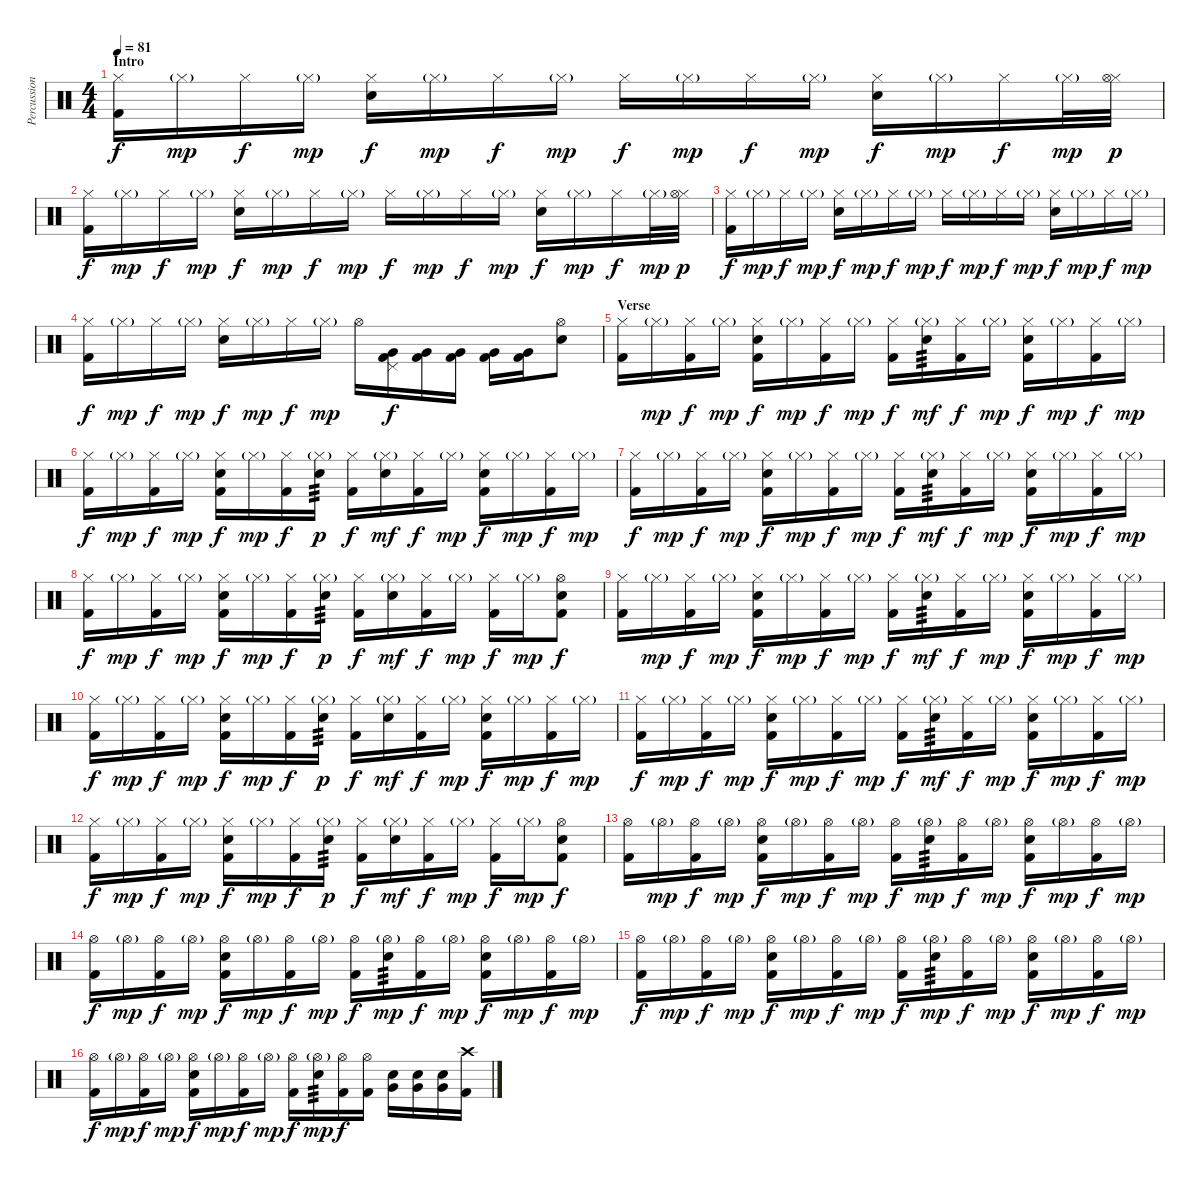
\track ("Percussion" "Percussion") {instrument percussion}
\staff {score}
\articulation defaults
\ts (4 4)
\section ("" "Intro")
\tempo 81
\clef neutral
\ks c
("Hi-Hat (closed)" "Kick (hit) 2").16{dy f} "Hi-Hat (closed)"{g}.16{dy mp} "Hi-Hat (closed)".16{dy f} "Hi-Hat (closed)"{g}.16{dy mp} ("Hi-Hat (closed)" "Electric Snare (hit)").16{dy f} "Hi-Hat (closed)"{g}.16{dy mp} "Hi-Hat (closed)".16{dy f} "Hi-Hat (closed)"{g}.16{dy mp} "Hi-Hat (closed)".16{dy f} "Hi-Hat (closed)"{g}.16{dy mp} "Hi-Hat (closed)".16{dy f} "Hi-Hat (closed)"{g}.16{dy mp} ("Hi-Hat (closed)" "Electric Snare (hit)").16{dy f} "Hi-Hat (closed)"{g}.16{dy mp} "Hi-Hat (closed)".16{dy f} "Hi-Hat (closed)"{g}.32{dy mp} ("Hi-Hat (closed)" "Hi-Hat (open)").32{dy p} |
("Hi-Hat (closed)" "Kick (hit) 2").16{dy f} "Hi-Hat (closed)"{g}.16{dy mp} "Hi-Hat (closed)".16{dy f} "Hi-Hat (closed)"{g}.16{dy mp} ("Hi-Hat (closed)" "Electric Snare (hit)").16{dy f} "Hi-Hat (closed)"{g}.16{dy mp} "Hi-Hat (closed)".16{dy f} "Hi-Hat (closed)"{g}.16{dy mp} "Hi-Hat (closed)".16{dy f} "Hi-Hat (closed)"{g}.16{dy mp} "Hi-Hat (closed)".16{dy f} "Hi-Hat (closed)"{g}.16{dy mp} ("Hi-Hat (closed)" "Electric Snare (hit)").16{dy f} "Hi-Hat (closed)"{g}.16{dy mp} "Hi-Hat (closed)".16{dy f} "Hi-Hat (closed)"{g}.32{dy mp} ("Hi-Hat (closed)" "Hi-Hat (open)").32{dy p} |
("Hi-Hat (closed)" "Kick (hit) 2").16{dy f} "Hi-Hat (closed)"{g}.16{dy mp} "Hi-Hat (closed)".16{dy f} "Hi-Hat (closed)"{g}.16{dy mp} ("Hi-Hat (closed)" "Electric Snare (hit)").16{dy f} "Hi-Hat (closed)"{g}.16{dy mp} "Hi-Hat (closed)".16{dy f} "Hi-Hat (closed)"{g}.16{dy mp} "Hi-Hat (closed)".16{dy f} "Hi-Hat (closed)"{g}.16{dy mp} "Hi-Hat (closed)".16{dy f} "Hi-Hat (closed)"{g}.16{dy mp} ("Hi-Hat (closed)" "Electric Snare (hit)").16{dy f} "Hi-Hat (closed)"{g}.16{dy mp} "Hi-Hat (closed)".16{dy f} "Hi-Hat (closed)"{g}.16{dy mp} |
("Hi-Hat (closed)" "Kick (hit) 2").16{dy f} "Hi-Hat (closed)"{g}.16{dy mp} "Hi-Hat (closed)".16{dy f} "Hi-Hat (closed)"{g}.16{dy mp} ("Hi-Hat (closed)" "Electric Snare (hit)").16{dy f} "Hi-Hat (closed)"{g}.16{dy mp} "Hi-Hat (closed)".16{dy f} "Hi-Hat (closed)"{g}.16{dy mp} "Hi-Hat (open)".16 ("Pedal Hi-Hat (hit)" "Very Low Tom (hit)" "Kick (hit) 2").16{dy f} ("Very Low Tom (hit)" "Kick (hit) 2").16 ("Very Low Tom (hit)" "Kick (hit) 2").16 ("Very Low Tom (hit)" "Kick (hit) 2").16 ("Very Low Tom (hit)" "Kick (hit) 2").16 ("Hi-Hat (open)" "Electric Snare (hit)").8 |
\section ("" "Verse")
("Hi-Hat (closed)" "Kick (hit) 2").16 "Hi-Hat (closed)"{g}.16{dy mp} ("Hi-Hat (closed)" "Kick (hit) 2").16{dy f} "Hi-Hat (closed)"{g}.16{dy mp} ("Hi-Hat (closed)" "Electric Snare (hit)" "Kick (hit) 2").16{dy f} "Hi-Hat (closed)"{g}.16{dy mp} ("Hi-Hat (closed)" "Kick (hit) 2").16{dy f} "Hi-Hat (closed)"{g}.16{dy mp} ("Hi-Hat (closed)" "Kick (hit) 2").16{dy f} ("Hi-Hat (closed)"{g} "Electric Snare (hit)").16{tp 3 dy mf} ("Hi-Hat (closed)" "Kick (hit) 2").16{dy f} "Hi-Hat (closed)"{g}.16{dy mp} ("Hi-Hat (closed)" "Electric Snare (hit)" "Kick (hit) 2").16{dy f} "Hi-Hat (closed)"{g}.16{dy mp} ("Hi-Hat (closed)" "Kick (hit) 2").16{dy f} "Hi-Hat (closed)"{g}.16{dy mp} |
("Hi-Hat (closed)" "Kick (hit) 2").16{dy f} "Hi-Hat (closed)"{g}.16{dy mp} ("Hi-Hat (closed)" "Kick (hit) 2").16{dy f} "Hi-Hat (closed)"{g}.16{dy mp} ("Hi-Hat (closed)" "Electric Snare (hit)" "Kick (hit) 2").16{dy f} "Hi-Hat (closed)"{g}.16{dy mp} ("Hi-Hat (closed)" "Kick (hit) 2").16{dy f} ("Hi-Hat (closed)"{g} "Electric Snare (hit)").16{tp 3 dy p} ("Hi-Hat (closed)" "Kick (hit) 2").16{dy f} ("Hi-Hat (closed)"{g} "Electric Snare (hit)").16{dy mf} ("Hi-Hat (closed)" "Kick (hit) 2").16{dy f} "Hi-Hat (closed)"{g}.16{dy mp} ("Hi-Hat (closed)" "Electric Snare (hit)" "Kick (hit) 2").16{dy f} "Hi-Hat (closed)"{g}.16{dy mp} ("Hi-Hat (closed)" "Kick (hit) 2").16{dy f} "Hi-Hat (closed)"{g}.16{dy mp} |
("Hi-Hat (closed)" "Kick (hit) 2").16{dy f} "Hi-Hat (closed)"{g}.16{dy mp} ("Hi-Hat (closed)" "Kick (hit) 2").16{dy f} "Hi-Hat (closed)"{g}.16{dy mp} ("Hi-Hat (closed)" "Electric Snare (hit)" "Kick (hit) 2").16{dy f} "Hi-Hat (closed)"{g}.16{dy mp} ("Hi-Hat (closed)" "Kick (hit) 2").16{dy f} "Hi-Hat (closed)"{g}.16{dy mp} ("Hi-Hat (closed)" "Kick (hit) 2").16{dy f} ("Hi-Hat (closed)"{g} "Electric Snare (hit)").16{tp 3 dy mf} ("Hi-Hat (closed)" "Kick (hit) 2").16{dy f} "Hi-Hat (closed)"{g}.16{dy mp} ("Hi-Hat (closed)" "Electric Snare (hit)" "Kick (hit) 2").16{dy f} "Hi-Hat (closed)"{g}.16{dy mp} ("Hi-Hat (closed)" "Kick (hit) 2").16{dy f} "Hi-Hat (closed)"{g}.16{dy mp} |
("Hi-Hat (closed)" "Kick (hit) 2").16{dy f} "Hi-Hat (closed)"{g}.16{dy mp} ("Hi-Hat (closed)" "Kick (hit) 2").16{dy f} "Hi-Hat (closed)"{g}.16{dy mp} ("Hi-Hat (closed)" "Electric Snare (hit)" "Kick (hit) 2").16{dy f} "Hi-Hat (closed)"{g}.16{dy mp} ("Hi-Hat (closed)" "Kick (hit) 2").16{dy f} ("Hi-Hat (closed)"{g} "Electric Snare (hit)").16{tp 3 dy p} ("Hi-Hat (closed)" "Kick (hit) 2").16{dy f} ("Hi-Hat (closed)"{g} "Electric Snare (hit)").16{dy mf} ("Hi-Hat (closed)" "Kick (hit) 2").16{dy f} "Hi-Hat (closed)"{g}.16{dy mp} ("Hi-Hat (closed)" "Kick (hit) 2").16{dy f} "Hi-Hat (closed)"{g}.16{dy mp} ("Hi-Hat (open)" "Electric Snare (hit)" "Kick (hit) 2").8{dy f} |
("Hi-Hat (closed)" "Kick (hit) 2").16 "Hi-Hat (closed)"{g}.16{dy mp} ("Hi-Hat (closed)" "Kick (hit) 2").16{dy f} "Hi-Hat (closed)"{g}.16{dy mp} ("Hi-Hat (closed)" "Electric Snare (hit)" "Kick (hit) 2").16{dy f} "Hi-Hat (closed)"{g}.16{dy mp} ("Hi-Hat (closed)" "Kick (hit) 2").16{dy f} "Hi-Hat (closed)"{g}.16{dy mp} ("Hi-Hat (closed)" "Kick (hit) 2").16{dy f} ("Hi-Hat (closed)"{g} "Electric Snare (hit)").16{tp 3 dy mf} ("Hi-Hat (closed)" "Kick (hit) 2").16{dy f} "Hi-Hat (closed)"{g}.16{dy mp} ("Hi-Hat (closed)" "Electric Snare (hit)" "Kick (hit) 2").16{dy f} "Hi-Hat (closed)"{g}.16{dy mp} ("Hi-Hat (closed)" "Kick (hit) 2").16{dy f} "Hi-Hat (closed)"{g}.16{dy mp} |
("Hi-Hat (closed)" "Kick (hit) 2").16{dy f} "Hi-Hat (closed)"{g}.16{dy mp} ("Hi-Hat (closed)" "Kick (hit) 2").16{dy f} "Hi-Hat (closed)"{g}.16{dy mp} ("Hi-Hat (closed)" "Electric Snare (hit)" "Kick (hit) 2").16{dy f} "Hi-Hat (closed)"{g}.16{dy mp} ("Hi-Hat (closed)" "Kick (hit) 2").16{dy f} ("Hi-Hat (closed)"{g} "Electric Snare (hit)").16{tp 3 dy p} ("Hi-Hat (closed)" "Kick (hit) 2").16{dy f} ("Hi-Hat (closed)"{g} "Electric Snare (hit)").16{dy mf} ("Hi-Hat (closed)" "Kick (hit) 2").16{dy f} "Hi-Hat (closed)"{g}.16{dy mp} ("Hi-Hat (closed)" "Electric Snare (hit)" "Kick (hit) 2").16{dy f} "Hi-Hat (closed)"{g}.16{dy mp} ("Hi-Hat (closed)" "Kick (hit) 2").16{dy f} "Hi-Hat (closed)"{g}.16{dy mp} |
("Hi-Hat (closed)" "Kick (hit) 2").16{dy f} "Hi-Hat (closed)"{g}.16{dy mp} ("Hi-Hat (closed)" "Kick (hit) 2").16{dy f} "Hi-Hat (closed)"{g}.16{dy mp} ("Hi-Hat (closed)" "Electric Snare (hit)" "Kick (hit) 2").16{dy f} "Hi-Hat (closed)"{g}.16{dy mp} ("Hi-Hat (closed)" "Kick (hit) 2").16{dy f} "Hi-Hat (closed)"{g}.16{dy mp} ("Hi-Hat (closed)" "Kick (hit) 2").16{dy f} ("Hi-Hat (closed)"{g} "Electric Snare (hit)").16{tp 3 dy mf} ("Hi-Hat (closed)" "Kick (hit) 2").16{dy f} "Hi-Hat (closed)"{g}.16{dy mp} ("Hi-Hat (closed)" "Electric Snare (hit)" "Kick (hit) 2").16{dy f} "Hi-Hat (closed)"{g}.16{dy mp} ("Hi-Hat (closed)" "Kick (hit) 2").16{dy f} "Hi-Hat (closed)"{g}.16{dy mp} |
("Hi-Hat (closed)" "Kick (hit) 2").16{dy f} "Hi-Hat (closed)"{g}.16{dy mp} ("Hi-Hat (closed)" "Kick (hit) 2").16{dy f} "Hi-Hat (closed)"{g}.16{dy mp} ("Hi-Hat (closed)" "Electric Snare (hit)" "Kick (hit) 2").16{dy f} "Hi-Hat (closed)"{g}.16{dy mp} ("Hi-Hat (closed)" "Kick (hit) 2").16{dy f} ("Hi-Hat (closed)"{g} "Electric Snare (hit)").16{tp 3 dy p} ("Hi-Hat (closed)" "Kick (hit) 2").16{dy f} ("Hi-Hat (closed)"{g} "Electric Snare (hit)").16{dy mf} ("Hi-Hat (closed)" "Kick (hit) 2").16{dy f} "Hi-Hat (closed)"{g}.16{dy mp} ("Hi-Hat (closed)" "Kick (hit) 2").16{dy f} "Hi-Hat (closed)"{g}.16{dy mp} ("Hi-Hat (open)" "Electric Snare (hit)" "Kick (hit) 2").8{dy f} |
("Hi-Hat (open)" "Kick (hit) 2").16 "Hi-Hat (open)"{g}.16{dy mp} ("Hi-Hat (open)" "Kick (hit) 2").16{dy f} "Hi-Hat (open)"{g}.16{dy mp} ("Hi-Hat (open)" "Electric Snare (hit)" "Kick (hit) 2").16{dy f} "Hi-Hat (open)"{g}.16{dy mp} ("Hi-Hat (open)" "Kick (hit) 2").16{dy f} "Hi-Hat (open)"{g}.16{dy mp} ("Hi-Hat (open)" "Kick (hit) 2").16{dy f} ("Hi-Hat (open)"{g} "Electric Snare (hit)").16{tp 3 dy mp} ("Hi-Hat (open)" "Kick (hit) 2").16{dy f} "Hi-Hat (open)"{g}.16{dy mp} ("Hi-Hat (open)" "Electric Snare (hit)" "Kick (hit) 2").16{dy f} "Hi-Hat (open)"{g}.16{dy mp} ("Hi-Hat (open)" "Kick (hit) 2").16{dy f} "Hi-Hat (open)"{g}.16{dy mp} |
("Hi-Hat (open)" "Kick (hit) 2").16{dy f} "Hi-Hat (open)"{g}.16{dy mp} ("Hi-Hat (open)" "Kick (hit) 2").16{dy f} "Hi-Hat (open)"{g}.16{dy mp} ("Hi-Hat (open)" "Electric Snare (hit)" "Kick (hit) 2").16{dy f} "Hi-Hat (open)"{g}.16{dy mp} ("Hi-Hat (open)" "Kick (hit) 2").16{dy f} "Hi-Hat (open)"{g}.16{dy mp} ("Hi-Hat (open)" "Kick (hit) 2").16{dy f} ("Hi-Hat (open)"{g} "Electric Snare (hit)").16{tp 3 dy mp} ("Hi-Hat (open)" "Kick (hit) 2").16{dy f} "Hi-Hat (open)"{g}.16{dy mp} ("Hi-Hat (open)" "Electric Snare (hit)" "Kick (hit) 2").16{dy f} "Hi-Hat (open)"{g}.16{dy mp} ("Hi-Hat (open)" "Kick (hit) 2").16{dy f} "Hi-Hat (open)"{g}.16{dy mp} |
("Hi-Hat (open)" "Kick (hit) 2").16{dy f} "Hi-Hat (open)"{g}.16{dy mp} ("Hi-Hat (open)" "Kick (hit) 2").16{dy f} "Hi-Hat (open)"{g}.16{dy mp} ("Hi-Hat (open)" "Electric Snare (hit)" "Kick (hit) 2").16{dy f} "Hi-Hat (open)"{g}.16{dy mp} ("Hi-Hat (open)" "Kick (hit) 2").16{dy f} "Hi-Hat (open)"{g}.16{dy mp} ("Hi-Hat (open)" "Kick (hit) 2").16{dy f} ("Hi-Hat (open)"{g} "Electric Snare (hit)").16{tp 3 dy mp} ("Hi-Hat (open)" "Kick (hit) 2").16{dy f} "Hi-Hat (open)"{g}.16{dy mp} ("Hi-Hat (open)" "Electric Snare (hit)" "Kick (hit) 2").16{dy f} "Hi-Hat (open)"{g}.16{dy mp} ("Hi-Hat (open)" "Kick (hit) 2").16{dy f} "Hi-Hat (open)"{g}.16{dy mp} |
("Hi-Hat (open)" "Kick (hit) 2").16{dy f} "Hi-Hat (open)"{g}.16{dy mp} ("Hi-Hat (open)" "Kick (hit) 2").16{dy f} "Hi-Hat (open)"{g}.16{dy mp} ("Hi-Hat (open)" "Electric Snare (hit)" "Kick (hit) 2").16{dy f} "Hi-Hat (open)"{g}.16{dy mp} ("Hi-Hat (open)" "Kick (hit) 2").16{dy f} "Hi-Hat (open)"{g}.16{dy mp} ("Hi-Hat (open)" "Kick (hit) 2").16{dy f} ("Hi-Hat (open)"{g} "Electric Snare (hit)").16{tp 3 dy mp} ("Hi-Hat (open)" "Kick (hit) 2").16{dy f} ("Hi-Hat (open)" "Kick (hit) 2").16 ("Very Low Tom (hit)" "Electric Snare (hit)").16 ("Very Low Tom (hit)" "Electric Snare (hit)").16 ("Very Low Tom (hit)" "Electric Snare (hit)").16 ("Crash high (hit)" "Kick (hit) 2").16
